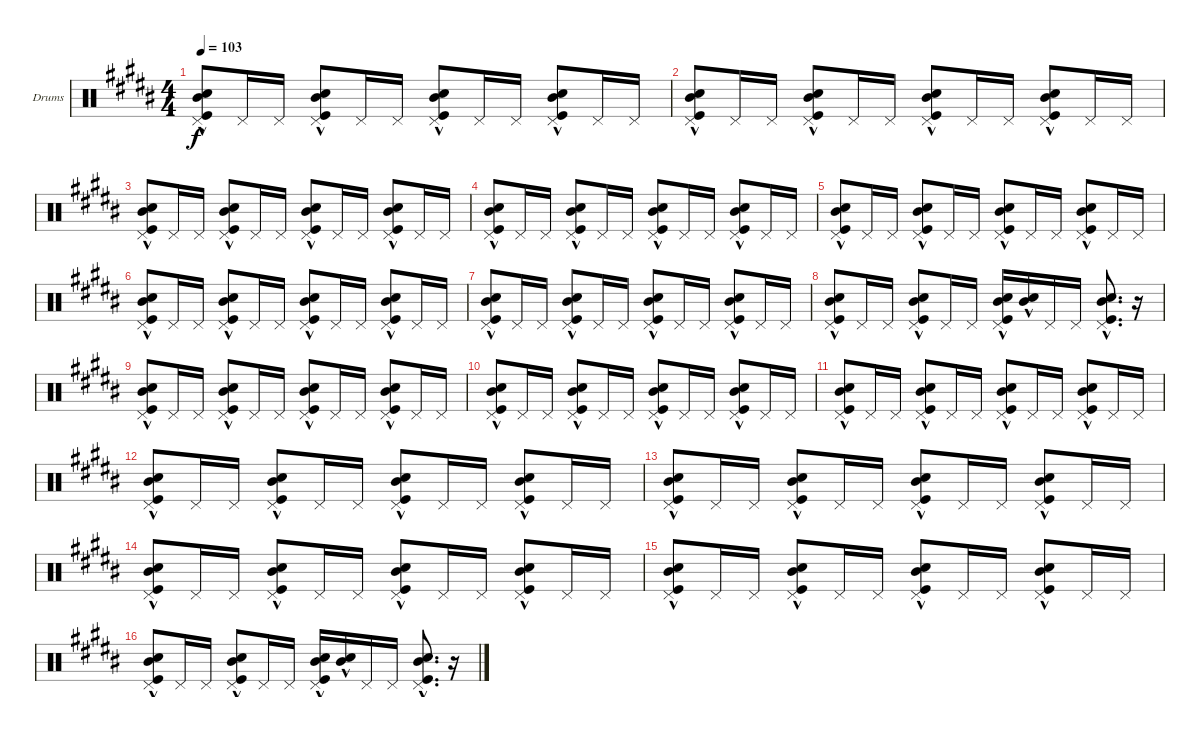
\defaultSystemsLayout 4
\bracketExtendMode groupsimilarinstruments
\firstSystemTrackNameOrientation horizontal
\otherSystemsTrackNameOrientation horizontal
\track ("Drumkit" "Drums") {instrument percussion}
\staff {score}
\articulation defaults
\ts (4 4)
\tempo 103
\clef neutral
\ks b
("Snare (hit) 2" "Mid Tom (hit)"{hac} "Pedal Hi-Hat (hit)" "Kick (hit)"{hac}).8{dy f} "Pedal Hi-Hat (hit)".16 "Pedal Hi-Hat (hit)".16 ("Snare (hit) 2" "Mid Tom (hit)"{hac} "Pedal Hi-Hat (hit)" "Kick (hit)"{hac}).8 "Pedal Hi-Hat (hit)".16 "Pedal Hi-Hat (hit)".16 ("Snare (hit) 2" "Mid Tom (hit)"{hac} "Pedal Hi-Hat (hit)" "Kick (hit)"{hac}).8 "Pedal Hi-Hat (hit)".16 "Pedal Hi-Hat (hit)".16 ("Snare (hit) 2" "Mid Tom (hit)"{hac} "Pedal Hi-Hat (hit)" "Kick (hit)"{hac}).8 "Pedal Hi-Hat (hit)".16 "Pedal Hi-Hat (hit)".16 |
("Snare (hit) 2" "Mid Tom (hit)"{hac} "Pedal Hi-Hat (hit)" "Kick (hit)"{hac}).8 "Pedal Hi-Hat (hit)".16 "Pedal Hi-Hat (hit)".16 ("Snare (hit) 2" "Mid Tom (hit)"{hac} "Pedal Hi-Hat (hit)" "Kick (hit)"{hac}).8 "Pedal Hi-Hat (hit)".16 "Pedal Hi-Hat (hit)".16 ("Snare (hit) 2" "Mid Tom (hit)"{hac} "Pedal Hi-Hat (hit)" "Kick (hit)"{hac}).8 "Pedal Hi-Hat (hit)".16 "Pedal Hi-Hat (hit)".16 ("Snare (hit) 2" "Mid Tom (hit)"{hac} "Pedal Hi-Hat (hit)" "Kick (hit)"{hac}).8 "Pedal Hi-Hat (hit)".16 "Pedal Hi-Hat (hit)".16 |
("Snare (hit) 2" "Mid Tom (hit)"{hac} "Pedal Hi-Hat (hit)" "Kick (hit)"{hac}).8 "Pedal Hi-Hat (hit)".16 "Pedal Hi-Hat (hit)".16 ("Snare (hit) 2" "Mid Tom (hit)"{hac} "Pedal Hi-Hat (hit)" "Kick (hit)"{hac}).8 "Pedal Hi-Hat (hit)".16 "Pedal Hi-Hat (hit)".16 ("Snare (hit) 2" "Mid Tom (hit)"{hac} "Pedal Hi-Hat (hit)" "Kick (hit)"{hac}).8 "Pedal Hi-Hat (hit)".16 "Pedal Hi-Hat (hit)".16 ("Snare (hit) 2" "Mid Tom (hit)"{hac} "Pedal Hi-Hat (hit)" "Kick (hit)"{hac}).8 "Pedal Hi-Hat (hit)".16 "Pedal Hi-Hat (hit)".16 |
("Snare (hit) 2" "Mid Tom (hit)"{hac} "Pedal Hi-Hat (hit)" "Kick (hit)"{hac}).8 "Pedal Hi-Hat (hit)".16 "Pedal Hi-Hat (hit)".16 ("Snare (hit) 2" "Mid Tom (hit)"{hac} "Pedal Hi-Hat (hit)" "Kick (hit)"{hac}).8 "Pedal Hi-Hat (hit)".16 "Pedal Hi-Hat (hit)".16 ("Snare (hit) 2" "Mid Tom (hit)"{hac} "Pedal Hi-Hat (hit)" "Kick (hit)"{hac}).8 "Pedal Hi-Hat (hit)".16 "Pedal Hi-Hat (hit)".16 ("Snare (hit) 2" "Mid Tom (hit)"{hac} "Pedal Hi-Hat (hit)" "Kick (hit)"{hac}).8 "Pedal Hi-Hat (hit)".16 "Pedal Hi-Hat (hit)".16 |
("Snare (hit) 2" "Mid Tom (hit)"{hac} "Pedal Hi-Hat (hit)" "Kick (hit)"{hac}).8 "Pedal Hi-Hat (hit)".16 "Pedal Hi-Hat (hit)".16 ("Snare (hit) 2" "Mid Tom (hit)"{hac} "Pedal Hi-Hat (hit)" "Kick (hit)"{hac}).8 "Pedal Hi-Hat (hit)".16 "Pedal Hi-Hat (hit)".16 ("Snare (hit) 2" "Mid Tom (hit)"{hac} "Pedal Hi-Hat (hit)" "Kick (hit)"{hac}).8 "Pedal Hi-Hat (hit)".16 "Pedal Hi-Hat (hit)".16 ("Snare (hit) 2" "Mid Tom (hit)"{hac} "Pedal Hi-Hat (hit)" "Kick (hit)"{hac}).8 "Pedal Hi-Hat (hit)".16 "Pedal Hi-Hat (hit)".16 |
("Snare (hit) 2" "Mid Tom (hit)"{hac} "Pedal Hi-Hat (hit)" "Kick (hit)"{hac}).8 "Pedal Hi-Hat (hit)".16 "Pedal Hi-Hat (hit)".16 ("Snare (hit) 2" "Mid Tom (hit)"{hac} "Pedal Hi-Hat (hit)" "Kick (hit)"{hac}).8 "Pedal Hi-Hat (hit)".16 "Pedal Hi-Hat (hit)".16 ("Snare (hit) 2" "Mid Tom (hit)"{hac} "Pedal Hi-Hat (hit)" "Kick (hit)"{hac}).8 "Pedal Hi-Hat (hit)".16 "Pedal Hi-Hat (hit)".16 ("Snare (hit) 2" "Mid Tom (hit)"{hac} "Pedal Hi-Hat (hit)" "Kick (hit)"{hac}).8 "Pedal Hi-Hat (hit)".16 "Pedal Hi-Hat (hit)".16 |
("Snare (hit) 2" "Mid Tom (hit)"{hac} "Pedal Hi-Hat (hit)" "Kick (hit)"{hac}).8 "Pedal Hi-Hat (hit)".16 "Pedal Hi-Hat (hit)".16 ("Snare (hit) 2" "Mid Tom (hit)"{hac} "Pedal Hi-Hat (hit)" "Kick (hit)"{hac}).8 "Pedal Hi-Hat (hit)".16 "Pedal Hi-Hat (hit)".16 ("Snare (hit) 2" "Mid Tom (hit)"{hac} "Pedal Hi-Hat (hit)" "Kick (hit)"{hac}).8 "Pedal Hi-Hat (hit)".16 "Pedal Hi-Hat (hit)".16 ("Snare (hit) 2" "Mid Tom (hit)"{hac} "Pedal Hi-Hat (hit)" "Kick (hit)"{hac}).8 "Pedal Hi-Hat (hit)".16 "Pedal Hi-Hat (hit)".16 |
("Snare (hit) 2" "Mid Tom (hit)"{hac} "Pedal Hi-Hat (hit)" "Kick (hit)"{hac}).8 "Pedal Hi-Hat (hit)".16 "Pedal Hi-Hat (hit)".16 ("Snare (hit) 2" "Mid Tom (hit)"{hac} "Pedal Hi-Hat (hit)" "Kick (hit)"{hac}).8 "Pedal Hi-Hat (hit)".16 "Pedal Hi-Hat (hit)".16 ("Pedal Hi-Hat (hit)" "Kick (hit)"{hac} "Snare (hit) 2" "Mid Tom (hit)"{hac}).16 ("Mid Tom (hit)"{hac} "Snare (hit) 2").16 "Pedal Hi-Hat (hit)".16 "Pedal Hi-Hat (hit)".16 ("Pedal Hi-Hat (hit)" "Kick (hit)"{hac} "Mid Tom (hit)"{hac} "Snare (hit) 2").8{d} r.16 |
("Snare (hit) 2" "Mid Tom (hit)"{hac} "Pedal Hi-Hat (hit)" "Kick (hit)"{hac}).8 "Pedal Hi-Hat (hit)".16 "Pedal Hi-Hat (hit)".16 ("Snare (hit) 2" "Mid Tom (hit)"{hac} "Pedal Hi-Hat (hit)" "Kick (hit)"{hac}).8 "Pedal Hi-Hat (hit)".16 "Pedal Hi-Hat (hit)".16 ("Snare (hit) 2" "Mid Tom (hit)"{hac} "Pedal Hi-Hat (hit)" "Kick (hit)"{hac}).8 "Pedal Hi-Hat (hit)".16 "Pedal Hi-Hat (hit)".16 ("Snare (hit) 2" "Mid Tom (hit)"{hac} "Pedal Hi-Hat (hit)" "Kick (hit)"{hac}).8 "Pedal Hi-Hat (hit)".16 "Pedal Hi-Hat (hit)".16 |
("Snare (hit) 2" "Mid Tom (hit)"{hac} "Pedal Hi-Hat (hit)" "Kick (hit)"{hac}).8 "Pedal Hi-Hat (hit)".16 "Pedal Hi-Hat (hit)".16 ("Snare (hit) 2" "Mid Tom (hit)"{hac} "Pedal Hi-Hat (hit)" "Kick (hit)"{hac}).8 "Pedal Hi-Hat (hit)".16 "Pedal Hi-Hat (hit)".16 ("Snare (hit) 2" "Mid Tom (hit)"{hac} "Pedal Hi-Hat (hit)" "Kick (hit)"{hac}).8 "Pedal Hi-Hat (hit)".16 "Pedal Hi-Hat (hit)".16 ("Snare (hit) 2" "Mid Tom (hit)"{hac} "Pedal Hi-Hat (hit)" "Kick (hit)"{hac}).8 "Pedal Hi-Hat (hit)".16 "Pedal Hi-Hat (hit)".16 |
("Snare (hit) 2" "Mid Tom (hit)"{hac} "Pedal Hi-Hat (hit)" "Kick (hit)"{hac}).8 "Pedal Hi-Hat (hit)".16 "Pedal Hi-Hat (hit)".16 ("Snare (hit) 2" "Mid Tom (hit)"{hac} "Pedal Hi-Hat (hit)" "Kick (hit)"{hac}).8 "Pedal Hi-Hat (hit)".16 "Pedal Hi-Hat (hit)".16 ("Snare (hit) 2" "Mid Tom (hit)"{hac} "Pedal Hi-Hat (hit)" "Kick (hit)"{hac}).8 "Pedal Hi-Hat (hit)".16 "Pedal Hi-Hat (hit)".16 ("Snare (hit) 2" "Mid Tom (hit)"{hac} "Pedal Hi-Hat (hit)" "Kick (hit)"{hac}).8 "Pedal Hi-Hat (hit)".16 "Pedal Hi-Hat (hit)".16 |
("Snare (hit) 2" "Mid Tom (hit)"{hac} "Pedal Hi-Hat (hit)" "Kick (hit)"{hac}).8 "Pedal Hi-Hat (hit)".16 "Pedal Hi-Hat (hit)".16 ("Snare (hit) 2" "Mid Tom (hit)"{hac} "Pedal Hi-Hat (hit)" "Kick (hit)"{hac}).8 "Pedal Hi-Hat (hit)".16 "Pedal Hi-Hat (hit)".16 ("Snare (hit) 2" "Mid Tom (hit)"{hac} "Pedal Hi-Hat (hit)" "Kick (hit)"{hac}).8 "Pedal Hi-Hat (hit)".16 "Pedal Hi-Hat (hit)".16 ("Snare (hit) 2" "Mid Tom (hit)"{hac} "Pedal Hi-Hat (hit)" "Kick (hit)"{hac}).8 "Pedal Hi-Hat (hit)".16 "Pedal Hi-Hat (hit)".16 |
("Snare (hit) 2" "Mid Tom (hit)"{hac} "Pedal Hi-Hat (hit)" "Kick (hit)"{hac}).8 "Pedal Hi-Hat (hit)".16 "Pedal Hi-Hat (hit)".16 ("Snare (hit) 2" "Mid Tom (hit)"{hac} "Pedal Hi-Hat (hit)" "Kick (hit)"{hac}).8 "Pedal Hi-Hat (hit)".16 "Pedal Hi-Hat (hit)".16 ("Snare (hit) 2" "Mid Tom (hit)"{hac} "Pedal Hi-Hat (hit)" "Kick (hit)"{hac}).8 "Pedal Hi-Hat (hit)".16 "Pedal Hi-Hat (hit)".16 ("Snare (hit) 2" "Mid Tom (hit)"{hac} "Pedal Hi-Hat (hit)" "Kick (hit)"{hac}).8 "Pedal Hi-Hat (hit)".16 "Pedal Hi-Hat (hit)".16 |
("Snare (hit) 2" "Mid Tom (hit)"{hac} "Pedal Hi-Hat (hit)" "Kick (hit)"{hac}).8 "Pedal Hi-Hat (hit)".16 "Pedal Hi-Hat (hit)".16 ("Snare (hit) 2" "Mid Tom (hit)"{hac} "Pedal Hi-Hat (hit)" "Kick (hit)"{hac}).8 "Pedal Hi-Hat (hit)".16 "Pedal Hi-Hat (hit)".16 ("Snare (hit) 2" "Mid Tom (hit)"{hac} "Pedal Hi-Hat (hit)" "Kick (hit)"{hac}).8 "Pedal Hi-Hat (hit)".16 "Pedal Hi-Hat (hit)".16 ("Snare (hit) 2" "Mid Tom (hit)"{hac} "Pedal Hi-Hat (hit)" "Kick (hit)"{hac}).8 "Pedal Hi-Hat (hit)".16 "Pedal Hi-Hat (hit)".16 |
("Snare (hit) 2" "Mid Tom (hit)"{hac} "Pedal Hi-Hat (hit)" "Kick (hit)"{hac}).8 "Pedal Hi-Hat (hit)".16 "Pedal Hi-Hat (hit)".16 ("Snare (hit) 2" "Mid Tom (hit)"{hac} "Pedal Hi-Hat (hit)" "Kick (hit)"{hac}).8 "Pedal Hi-Hat (hit)".16 "Pedal Hi-Hat (hit)".16 ("Snare (hit) 2" "Mid Tom (hit)"{hac} "Pedal Hi-Hat (hit)" "Kick (hit)"{hac}).8 "Pedal Hi-Hat (hit)".16 "Pedal Hi-Hat (hit)".16 ("Snare (hit) 2" "Mid Tom (hit)"{hac} "Pedal Hi-Hat (hit)" "Kick (hit)"{hac}).8 "Pedal Hi-Hat (hit)".16 "Pedal Hi-Hat (hit)".16 |
("Snare (hit) 2" "Mid Tom (hit)"{hac} "Pedal Hi-Hat (hit)" "Kick (hit)"{hac}).8 "Pedal Hi-Hat (hit)".16 "Pedal Hi-Hat (hit)".16 ("Snare (hit) 2" "Mid Tom (hit)"{hac} "Pedal Hi-Hat (hit)" "Kick (hit)"{hac}).8 "Pedal Hi-Hat (hit)".16 "Pedal Hi-Hat (hit)".16 ("Pedal Hi-Hat (hit)" "Kick (hit)"{hac} "Snare (hit) 2" "Mid Tom (hit)"{hac}).16 ("Mid Tom (hit)"{hac} "Snare (hit) 2").16 "Pedal Hi-Hat (hit)".16 "Pedal Hi-Hat (hit)".16 ("Pedal Hi-Hat (hit)" "Kick (hit)"{hac} "Mid Tom (hit)"{hac} "Snare (hit) 2").8{d} r.16
